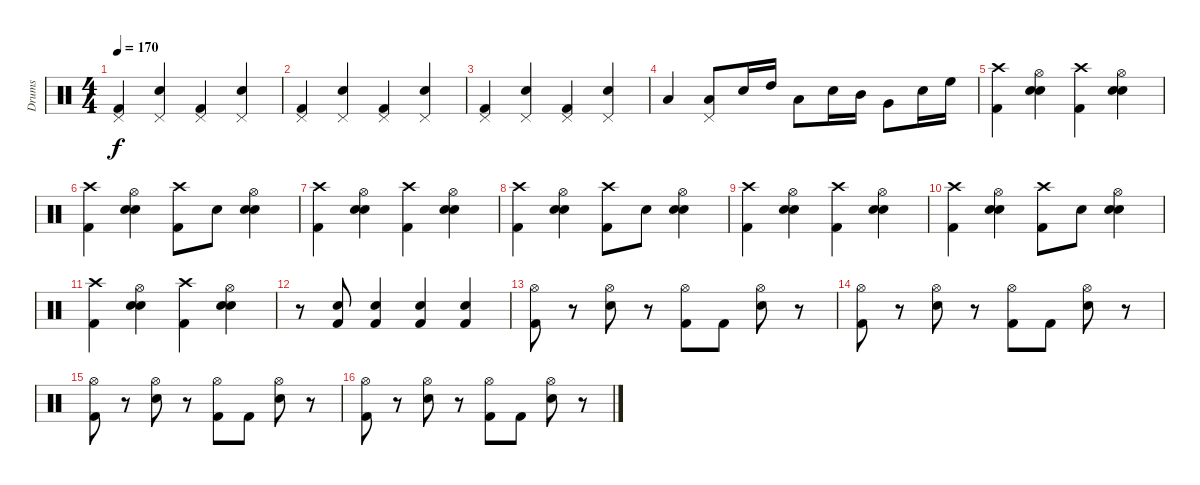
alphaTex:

\track ("Drums" "Drums") {instrument percussion}
\staff {score}
\articulation defaults
\ts (4 4)
\tempo 170
\clef neutral
\ks c
("Pedal Hi-Hat (hit)" "Kick (hit) 2").4{dy f} ("Pedal Hi-Hat (hit)" "Snare (hit) 2").4 ("Pedal Hi-Hat (hit)" "Kick (hit) 2").4 ("Pedal Hi-Hat (hit)" "Snare (hit) 2").4 |
("Pedal Hi-Hat (hit)" "Kick (hit) 2").4 ("Pedal Hi-Hat (hit)" "Snare (hit) 2").4 ("Pedal Hi-Hat (hit)" "Kick (hit) 2").4 ("Pedal Hi-Hat (hit)" "Snare (hit) 2").4 |
("Pedal Hi-Hat (hit)" "Kick (hit) 2").4 ("Pedal Hi-Hat (hit)" "Snare (hit) 2").4 ("Pedal Hi-Hat (hit)" "Kick (hit) 2").4 ("Pedal Hi-Hat (hit)" "Snare (hit) 2").4 |
"Low Floor Tom (hit)".4 ("Pedal Hi-Hat (hit)" "Low Floor Tom (hit)").8 "Snare (hit) 2".16 "High Tom (hit)".16 "Low Tom (hit)".8 "Snare (hit) 2".16 "Mid Tom (hit)".16 "Very Low Tom (hit)".8 "Snare (hit) 2".16 "High Floor Tom (hit)".16 |
("Crash high (hit)" "Kick (hit) 2").4 ("Hi-Hat (open)" "Snare (hit) 2" "Hand Clap (hit)").4 ("Crash high (hit)" "Kick (hit) 2").4 ("Hi-Hat (open)" "Snare (hit) 2" "Hand Clap (hit)").4 |
("Crash high (hit)" "Kick (hit) 2").4 ("Hi-Hat (open)" "Snare (hit) 2" "Hand Clap (hit)").4 ("Crash high (hit)" "Kick (hit) 2").8 "Hand Clap (hit)".8 ("Hi-Hat (open)" "Snare (hit) 2" "Hand Clap (hit)").4 |
("Crash high (hit)" "Kick (hit) 2").4 ("Hi-Hat (open)" "Snare (hit) 2" "Hand Clap (hit)").4 ("Crash high (hit)" "Kick (hit) 2").4 ("Hi-Hat (open)" "Snare (hit) 2" "Hand Clap (hit)").4 |
("Crash high (hit)" "Kick (hit) 2").4 ("Hi-Hat (open)" "Snare (hit) 2" "Hand Clap (hit)").4 ("Crash high (hit)" "Kick (hit) 2").8 "Hand Clap (hit)".8 ("Hi-Hat (open)" "Snare (hit) 2" "Hand Clap (hit)").4 |
("Crash high (hit)" "Kick (hit) 2").4 ("Hi-Hat (open)" "Snare (hit) 2" "Hand Clap (hit)").4 ("Crash high (hit)" "Kick (hit) 2").4 ("Hi-Hat (open)" "Snare (hit) 2" "Hand Clap (hit)").4 |
("Crash high (hit)" "Kick (hit) 2").4 ("Hi-Hat (open)" "Snare (hit) 2" "Hand Clap (hit)").4 ("Crash high (hit)" "Kick (hit) 2").8 "Hand Clap (hit)".8 ("Hi-Hat (open)" "Snare (hit) 2" "Hand Clap (hit)").4 |
("Crash high (hit)" "Kick (hit) 2").4 ("Hi-Hat (open)" "Snare (hit) 2" "Hand Clap (hit)").4 ("Crash high (hit)" "Kick (hit) 2").4 ("Hi-Hat (open)" "Snare (hit) 2" "Hand Clap (hit)").4 |
r.8 ("Snare (hit) 2" "Kick (hit) 2").8 ("Snare (hit) 2" "Kick (hit) 2").4 ("Snare (hit) 2" "Kick (hit) 2").4 ("Snare (hit) 2" "Kick (hit) 2").4 |
("Hi-Hat (open)" "Kick (hit) 2").8 r.8 ("Hi-Hat (open)" "Snare (hit) 2").8 r.8 ("Hi-Hat (open)" "Kick (hit) 2").8 "Kick (hit) 2".8 ("Hi-Hat (open)" "Snare (hit) 2").8 r.8 |
("Hi-Hat (open)" "Kick (hit) 2").8 r.8 ("Hi-Hat (open)" "Snare (hit) 2").8 r.8 ("Hi-Hat (open)" "Kick (hit) 2").8 "Kick (hit) 2".8 ("Hi-Hat (open)" "Snare (hit) 2").8 r.8 |
("Hi-Hat (open)" "Kick (hit) 2").8 r.8 ("Hi-Hat (open)" "Snare (hit) 2").8 r.8 ("Hi-Hat (open)" "Kick (hit) 2").8 "Kick (hit) 2".8 ("Hi-Hat (open)" "Snare (hit) 2").8 r.8 |
("Hi-Hat (open)" "Kick (hit) 2").8 r.8 ("Hi-Hat (open)" "Snare (hit) 2").8 r.8 ("Hi-Hat (open)" "Kick (hit) 2").8 "Kick (hit) 2".8 ("Hi-Hat (open)" "Snare (hit) 2").8 r.8
